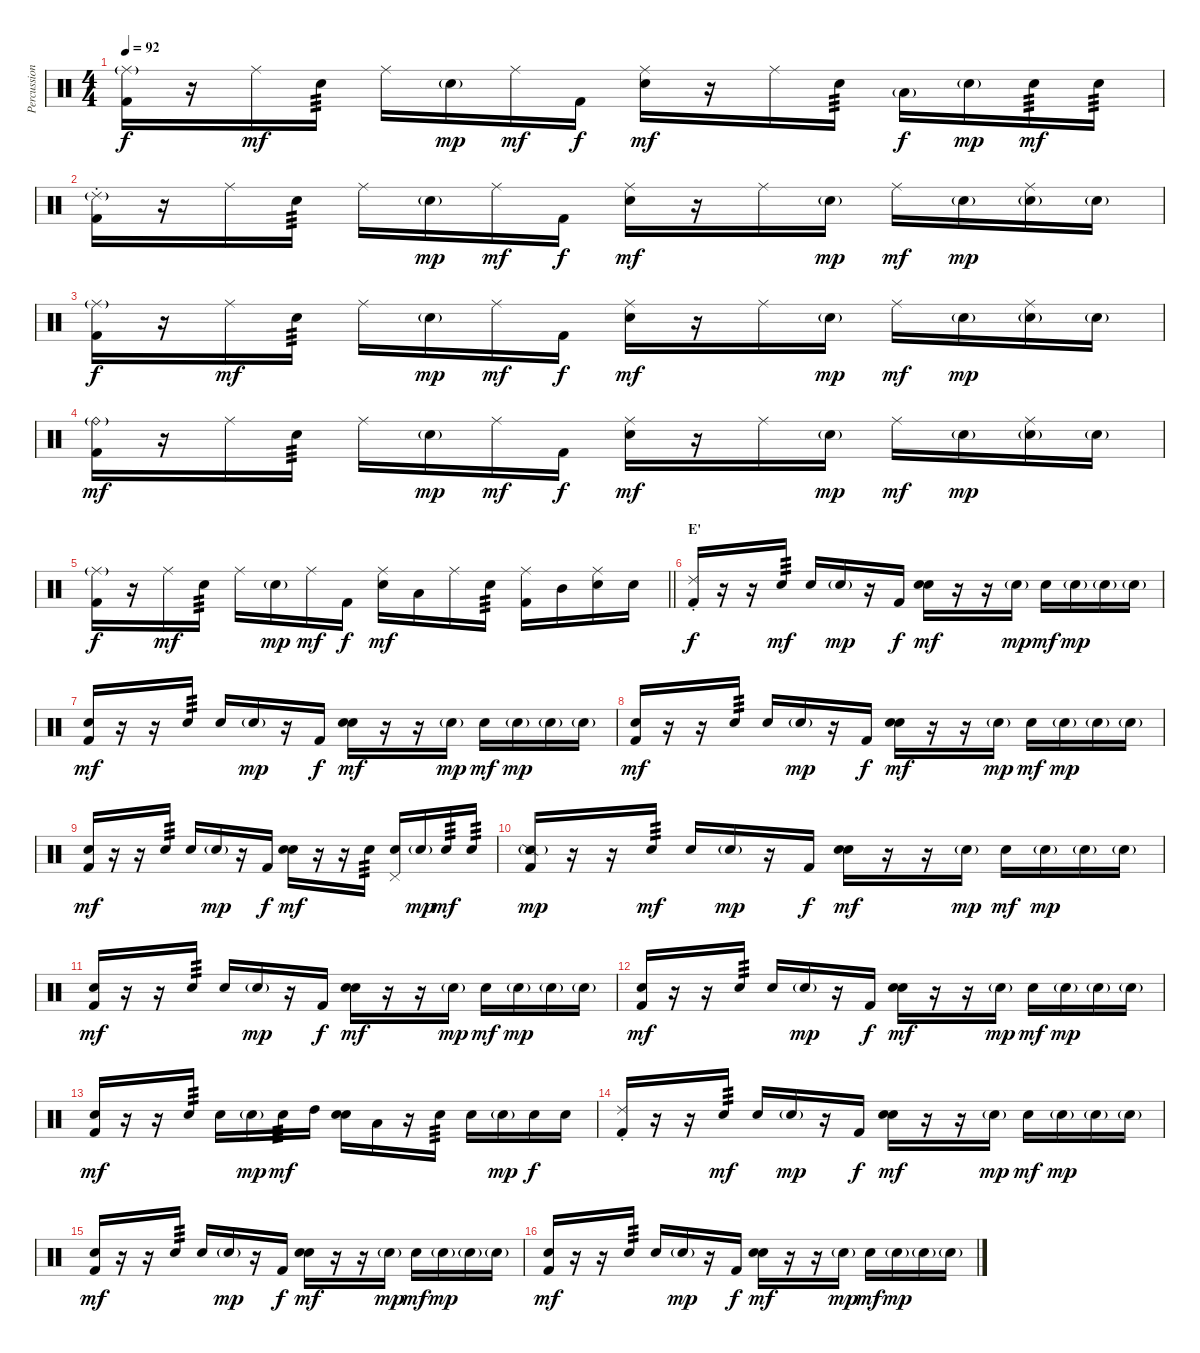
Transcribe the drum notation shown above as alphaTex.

\track ("Percussion" "Percussion") {instrument percussion}
\staff {score}
\articulation defaults
\ts (4 4)
\tempo 92
\clef neutral
\ks c
("Ride (middle)"{g} "Kick (hit) 2").16{dy f} r.16 "Ride (middle)".16{dy mf} "Snare (hit) 2".16{tp 3} "Ride (middle)".16 "Snare (hit) 2"{g}.16{dy mp} "Ride (middle)".16{dy mf} "Kick (hit) 2".16{dy f} ("Ride (middle)" "Snare (hit) 2").16{dy mf} r.16 "Ride (middle)".16 "Snare (hit) 2".16{tp 3} "Low Tom (hit)"{g}.16{dy f} "Snare (hit) 2"{g}.16{dy mp} "Snare (hit) 2".16{tp 3 dy mf} "Snare (hit) 2".16{tp 3} |
("Ride (choke) 2"{g} "Kick (hit) 2").16 r.16 "Ride (middle)".16 "Snare (hit) 2".16{tp 3} "Ride (middle)".16 "Snare (hit) 2"{g}.16{dy mp} "Ride (middle)".16{dy mf} "Kick (hit) 2".16{dy f} ("Ride (middle)" "Snare (hit) 2").16{dy mf} r.16 "Ride (middle)".16 "Snare (hit) 2"{g}.16{dy mp} "Ride (middle)".16{dy mf} "Snare (hit) 2"{g}.16{dy mp} ("Ride (middle)" "Snare (hit) 2"{g}).16 "Snare (hit) 2"{g}.16 |
("Ride (middle)"{g} "Kick (hit) 2").16{dy f} r.16 "Ride (middle)".16{dy mf} "Snare (hit) 2".16{tp 3} "Ride (middle)".16 "Snare (hit) 2"{g}.16{dy mp} "Ride (middle)".16{dy mf} "Kick (hit) 2".16{dy f} ("Ride (middle)" "Snare (hit) 2").16{dy mf} r.16 "Ride (middle)".16 "Snare (hit) 2"{g}.16{dy mp} "Ride (middle)".16{dy mf} "Snare (hit) 2"{g}.16{dy mp} ("Ride (middle)" "Snare (hit) 2"{g}).16 "Snare (hit) 2"{g}.16 |
("Ride (bell)"{g} "Kick (hit) 2").16{dy mf} r.16 "Ride (middle)".16 "Snare (hit) 2".16{tp 3} "Ride (middle)".16 "Snare (hit) 2"{g}.16{dy mp} "Ride (middle)".16{dy mf} "Kick (hit) 2".16{dy f} ("Ride (middle)" "Snare (hit) 2").16{dy mf} r.16 "Ride (middle)".16 "Snare (hit) 2"{g}.16{dy mp} "Ride (middle)".16{dy mf} "Snare (hit) 2"{g}.16{dy mp} ("Ride (middle)" "Snare (hit) 2"{g}).16 "Snare (hit) 2"{g}.16 |
\barLineRight lightlight
("Ride (middle)"{g} "Kick (hit) 2").16{dy f} r.16 "Ride (middle)".16{dy mf} "Snare (hit) 2".16{tp 3} "Ride (middle)".16 "Snare (hit) 2"{g}.16{dy mp} "Ride (middle)".16{dy mf} "Kick (hit) 2".16{dy f} ("Ride (middle)" "Snare (hit) 2").16{dy mf} "Low Tom (hit)".16 "Ride (middle)".16 "Snare (hit) 2".16{tp 3} ("Ride (middle)" "Kick (hit) 2").16 "Mid Tom (hit)".16 ("Ride (middle)" "Snare (hit) 2").16 "Snare (hit) 2".16 |
\section ("" "E'")
("Ride (choke) 2" "Kick (hit) 2").16{dy f} r.16 r.16 "Snare (hit) 2".16{tp 3 dy mf} "Snare (hit)".16 "Snare (hit) 2"{g}.16{dy mp} r.16 "Kick (hit) 2".16{dy f} ("Snare (hit)" "Snare (hit) 2").16{dy mf} r.16 r.16 "Snare (hit) 2"{g}.16{dy mp} "Snare (hit)".16{dy mf} "Snare (hit) 2"{g}.16{dy mp} "Snare (hit) 2"{g}.16 "Snare (hit) 2"{g}.16 |
("Snare (hit)" "Kick (hit) 2").16{dy mf} r.16 r.16 "Snare (hit) 2".16{tp 3} "Snare (hit)".16 "Snare (hit) 2"{g}.16{dy mp} r.16 "Kick (hit) 2".16{dy f} ("Snare (hit)" "Snare (hit) 2").16{dy mf} r.16 r.16 "Snare (hit) 2"{g}.16{dy mp} "Snare (hit)".16{dy mf} "Snare (hit) 2"{g}.16{dy mp} "Snare (hit) 2"{g}.16 "Snare (hit) 2"{g}.16 |
("Snare (hit)" "Kick (hit) 2").16{dy mf} r.16 r.16 "Snare (hit) 2".16{tp 3} "Snare (hit)".16 "Snare (hit) 2"{g}.16{dy mp} r.16 "Kick (hit) 2".16{dy f} ("Snare (hit)" "Snare (hit) 2").16{dy mf} r.16 r.16 "Snare (hit) 2"{g}.16{dy mp} "Snare (hit)".16{dy mf} "Snare (hit) 2"{g}.16{dy mp} "Snare (hit) 2"{g}.16 "Snare (hit) 2"{g}.16 |
("Snare (hit)" "Kick (hit) 2").16{dy mf} r.16 r.16 "Snare (hit) 2".16{tp 3} "Snare (hit)".16 "Snare (hit) 2"{g}.16{dy mp} r.16 "Kick (hit) 2".16{dy f} ("Snare (hit)" "Snare (hit) 2").16{dy mf} r.16 r.16 "Snare (hit) 2".16{tp 3} ("Pedal Hi-Hat (hit)" "Snare (hit) 2").16 "Snare (hit) 2"{g}.16{dy mp} "Snare (hit) 2".16{tp 3 dy mf} "Snare (hit) 2".16{tp 3} |
("Snare (side stick) 2"{g} "Kick (hit) 2").16{dy mp} r.16 r.16 "Snare (hit) 2".16{tp 3 dy mf} "Snare (hit)".16 "Snare (hit) 2"{g}.16{dy mp} r.16 "Kick (hit) 2".16{dy f} ("Snare (hit)" "Snare (hit) 2").16{dy mf} r.16 r.16 "Snare (hit) 2"{g}.16{dy mp} "Snare (hit)".16{dy mf} "Snare (hit) 2"{g}.16{dy mp} "Snare (hit) 2"{g}.16 "Snare (hit) 2"{g}.16 |
("Snare (hit)" "Kick (hit) 2").16{dy mf} r.16 r.16 "Snare (hit) 2".16{tp 3} "Snare (hit)".16 "Snare (hit) 2"{g}.16{dy mp} r.16 "Kick (hit) 2".16{dy f} ("Snare (hit)" "Snare (hit) 2").16{dy mf} r.16 r.16 "Snare (hit) 2"{g}.16{dy mp} "Snare (hit)".16{dy mf} "Snare (hit) 2"{g}.16{dy mp} "Snare (hit) 2"{g}.16 "Snare (hit) 2"{g}.16 |
("Snare (hit)" "Kick (hit) 2").16{dy mf} r.16 r.16 "Snare (hit) 2".16{tp 3} "Snare (hit)".16 "Snare (hit) 2"{g}.16{dy mp} r.16 "Kick (hit) 2".16{dy f} ("Snare (hit)" "Snare (hit) 2").16{dy mf} r.16 r.16 "Snare (hit) 2"{g}.16{dy mp} "Snare (hit)".16{dy mf} "Snare (hit) 2"{g}.16{dy mp} "Snare (hit) 2"{g}.16 "Snare (hit) 2"{g}.16 |
("Snare (hit)" "Kick (hit) 2").16{dy mf} r.16 r.16 "Snare (hit) 2".16{tp 3} "Snare (hit)".16 "Snare (hit) 2"{g}.16{dy mp} "Snare (hit) 2".16{tp 3 dy mf} "High Tom (hit)".16 ("Snare (hit)" "Snare (hit) 2").16 "Low Tom (hit)".16 r.16 "Snare (hit) 2".16{tp 3} "Snare (hit) 2".16 "Snare (hit) 2"{g}.16{dy mp} "Snare (hit) 2".16{dy f} "Snare (hit) 2".16 |
("Ride (choke) 2" "Kick (hit) 2").16 r.16 r.16 "Snare (hit) 2".16{tp 3 dy mf} "Snare (hit)".16 "Snare (hit) 2"{g}.16{dy mp} r.16 "Kick (hit) 2".16{dy f} ("Snare (hit)" "Snare (hit) 2").16{dy mf} r.16 r.16 "Snare (hit) 2"{g}.16{dy mp} "Snare (hit)".16{dy mf} "Snare (hit) 2"{g}.16{dy mp} "Snare (hit) 2"{g}.16 "Snare (hit) 2"{g}.16 |
("Snare (hit)" "Kick (hit) 2").16{dy mf} r.16 r.16 "Snare (hit) 2".16{tp 3} "Snare (hit)".16 "Snare (hit) 2"{g}.16{dy mp} r.16 "Kick (hit) 2".16{dy f} ("Snare (hit)" "Snare (hit) 2").16{dy mf} r.16 r.16 "Snare (hit) 2"{g}.16{dy mp} "Snare (hit)".16{dy mf} "Snare (hit) 2"{g}.16{dy mp} "Snare (hit) 2"{g}.16 "Snare (hit) 2"{g}.16 |
("Snare (hit)" "Kick (hit) 2").16{dy mf} r.16 r.16 "Snare (hit) 2".16{tp 3} "Snare (hit)".16 "Snare (hit) 2"{g}.16{dy mp} r.16 "Kick (hit) 2".16{dy f} ("Snare (hit)" "Snare (hit) 2").16{dy mf} r.16 r.16 "Snare (hit) 2"{g}.16{dy mp} "Snare (hit)".16{dy mf} "Snare (hit) 2"{g}.16{dy mp} "Snare (hit) 2"{g}.16 "Snare (hit) 2"{g}.16
